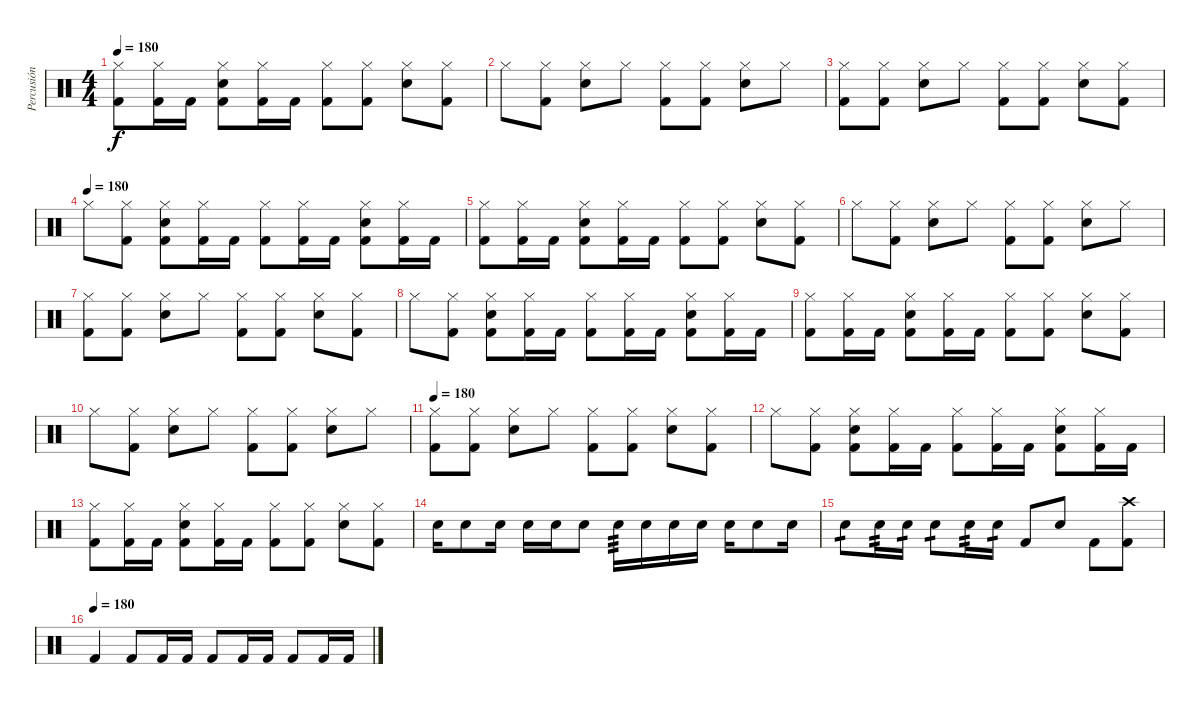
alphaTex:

\track ("Percusión" "Percusión") {instrument percussion}
\staff {score}
\articulation defaults
\ts (4 4)
\tempo 180
\clef neutral
\ks c
("Hi-Hat (closed)" "Kick (hit) 2").8{dy f} ("Hi-Hat (closed)" "Kick (hit) 2").16 "Kick (hit) 2".16 ("Hi-Hat (closed)" "Electric Snare (hit)" "Kick (hit) 2").8 ("Hi-Hat (closed)" "Kick (hit) 2").16 "Kick (hit) 2".16 ("Hi-Hat (closed)" "Kick (hit) 2").8 ("Hi-Hat (closed)" "Kick (hit) 2").8 ("Hi-Hat (closed)" "Electric Snare (hit)").8 ("Hi-Hat (closed)" "Kick (hit) 2").8 |
"Hi-Hat (closed)".8 ("Hi-Hat (closed)" "Kick (hit) 2").8 ("Hi-Hat (closed)" "Electric Snare (hit)").8 "Hi-Hat (closed)".8 ("Hi-Hat (closed)" "Kick (hit) 2").8 ("Hi-Hat (closed)" "Kick (hit) 2").8 ("Hi-Hat (closed)" "Electric Snare (hit)").8 "Hi-Hat (closed)".8 |
("Hi-Hat (closed)" "Kick (hit) 2").8 ("Hi-Hat (closed)" "Kick (hit) 2").8 ("Hi-Hat (closed)" "Electric Snare (hit)").8 "Hi-Hat (closed)".8 ("Hi-Hat (closed)" "Kick (hit) 2").8 ("Hi-Hat (closed)" "Kick (hit) 2").8 ("Hi-Hat (closed)" "Electric Snare (hit)").8 ("Hi-Hat (closed)" "Kick (hit) 2").8 |
\tempo (180)
"Hi-Hat (closed)".8 ("Hi-Hat (closed)" "Kick (hit) 2").8 ("Hi-Hat (closed)" "Electric Snare (hit)" "Kick (hit) 2").8 ("Hi-Hat (closed)" "Kick (hit) 2").16 "Kick (hit) 2".16 ("Hi-Hat (closed)" "Kick (hit) 2").8 ("Hi-Hat (closed)" "Kick (hit) 2").16 "Kick (hit) 2".16 ("Hi-Hat (closed)" "Electric Snare (hit)" "Kick (hit) 2").8 ("Hi-Hat (closed)" "Kick (hit) 2").16 "Kick (hit) 2".16 |
("Hi-Hat (closed)" "Kick (hit) 2").8 ("Hi-Hat (closed)" "Kick (hit) 2").16 "Kick (hit) 2".16 ("Hi-Hat (closed)" "Electric Snare (hit)" "Kick (hit) 2").8 ("Hi-Hat (closed)" "Kick (hit) 2").16 "Kick (hit) 2".16 ("Hi-Hat (closed)" "Kick (hit) 2").8 ("Hi-Hat (closed)" "Kick (hit) 2").8 ("Hi-Hat (closed)" "Electric Snare (hit)").8 ("Hi-Hat (closed)" "Kick (hit) 2").8 |
"Hi-Hat (closed)".8 ("Hi-Hat (closed)" "Kick (hit) 2").8 ("Hi-Hat (closed)" "Electric Snare (hit)").8 "Hi-Hat (closed)".8 ("Hi-Hat (closed)" "Kick (hit) 2").8 ("Hi-Hat (closed)" "Kick (hit) 2").8 ("Hi-Hat (closed)" "Electric Snare (hit)").8 "Hi-Hat (closed)".8 |
("Hi-Hat (closed)" "Kick (hit) 2").8 ("Hi-Hat (closed)" "Kick (hit) 2").8 ("Hi-Hat (closed)" "Electric Snare (hit)").8 "Hi-Hat (closed)".8 ("Hi-Hat (closed)" "Kick (hit) 2").8 ("Hi-Hat (closed)" "Kick (hit) 2").8 ("Hi-Hat (closed)" "Electric Snare (hit)").8 ("Hi-Hat (closed)" "Kick (hit) 2").8 |
"Hi-Hat (closed)".8 ("Hi-Hat (closed)" "Kick (hit) 2").8 ("Hi-Hat (closed)" "Electric Snare (hit)" "Kick (hit) 2").8 ("Hi-Hat (closed)" "Kick (hit) 2").16 "Kick (hit) 2".16 ("Hi-Hat (closed)" "Kick (hit) 2").8 ("Hi-Hat (closed)" "Kick (hit) 2").16 "Kick (hit) 2".16 ("Hi-Hat (closed)" "Electric Snare (hit)" "Kick (hit) 2").8 ("Hi-Hat (closed)" "Kick (hit) 2").16 "Kick (hit) 2".16 |
("Hi-Hat (closed)" "Kick (hit) 2").8 ("Hi-Hat (closed)" "Kick (hit) 2").16 "Kick (hit) 2".16 ("Hi-Hat (closed)" "Electric Snare (hit)" "Kick (hit) 2").8 ("Hi-Hat (closed)" "Kick (hit) 2").16 "Kick (hit) 2".16 ("Hi-Hat (closed)" "Kick (hit) 2").8 ("Hi-Hat (closed)" "Kick (hit) 2").8 ("Hi-Hat (closed)" "Electric Snare (hit)").8 ("Hi-Hat (closed)" "Kick (hit) 2").8 |
"Hi-Hat (closed)".8 ("Hi-Hat (closed)" "Kick (hit) 2").8 ("Hi-Hat (closed)" "Electric Snare (hit)").8 "Hi-Hat (closed)".8 ("Hi-Hat (closed)" "Kick (hit) 2").8 ("Hi-Hat (closed)" "Kick (hit) 2").8 ("Hi-Hat (closed)" "Electric Snare (hit)").8 "Hi-Hat (closed)".8 |
\tempo 180
("Hi-Hat (closed)" "Kick (hit) 2").8 ("Hi-Hat (closed)" "Kick (hit) 2").8 ("Hi-Hat (closed)" "Electric Snare (hit)").8 "Hi-Hat (closed)".8 ("Hi-Hat (closed)" "Kick (hit) 2").8 ("Hi-Hat (closed)" "Kick (hit) 2").8 ("Hi-Hat (closed)" "Electric Snare (hit)").8 ("Hi-Hat (closed)" "Kick (hit) 2").8 |
"Hi-Hat (closed)".8 ("Hi-Hat (closed)" "Kick (hit) 2").8 ("Hi-Hat (closed)" "Electric Snare (hit)" "Kick (hit) 2").8 ("Hi-Hat (closed)" "Kick (hit) 2").16 "Kick (hit) 2".16 ("Hi-Hat (closed)" "Kick (hit) 2").8 ("Hi-Hat (closed)" "Kick (hit) 2").16 "Kick (hit) 2".16 ("Hi-Hat (closed)" "Electric Snare (hit)" "Kick (hit) 2").8 ("Hi-Hat (closed)" "Kick (hit) 2").16 "Kick (hit) 2".16 |
("Hi-Hat (closed)" "Kick (hit) 2").8 ("Hi-Hat (closed)" "Kick (hit) 2").16 "Kick (hit) 2".16 ("Hi-Hat (closed)" "Electric Snare (hit)" "Kick (hit) 2").8 ("Hi-Hat (closed)" "Kick (hit) 2").16 "Kick (hit) 2".16 ("Hi-Hat (closed)" "Kick (hit) 2").8 ("Hi-Hat (closed)" "Kick (hit) 2").8 ("Hi-Hat (closed)" "Electric Snare (hit)").8 ("Hi-Hat (closed)" "Kick (hit) 2").8 |
"Electric Snare (hit)".16 "Electric Snare (hit)".8 "Electric Snare (hit)".16 "Electric Snare (hit)".16 "Electric Snare (hit)".16 "Electric Snare (hit)".8 "Electric Snare (hit)".16{tp 3} "Electric Snare (hit)".16 "Electric Snare (hit)".16 "Electric Snare (hit)".16 "Electric Snare (hit)".16 "Electric Snare (hit)".8 "Electric Snare (hit)".16 |
"Electric Snare (hit)".8{tp 1} "Electric Snare (hit)".16{tp 2} "Electric Snare (hit)".16{tp 1} "Electric Snare (hit)".8{tp 1} "Electric Snare (hit)".16{tp 2} "Electric Snare (hit)".16{tp 1} "Kick (hit) 2".8 "Electric Snare (hit)".8 "Kick (hit) 2".8 ("Crash high (hit)" "Kick (hit) 2").8 |
\tempo (180)
"Kick (hit) 2".4 "Kick (hit) 2".8 "Kick (hit) 2".16 "Kick (hit) 2".16 "Kick (hit) 2".8 "Kick (hit) 2".16 "Kick (hit) 2".16 "Kick (hit) 2".8 "Kick (hit) 2".16 "Kick (hit) 2".16
